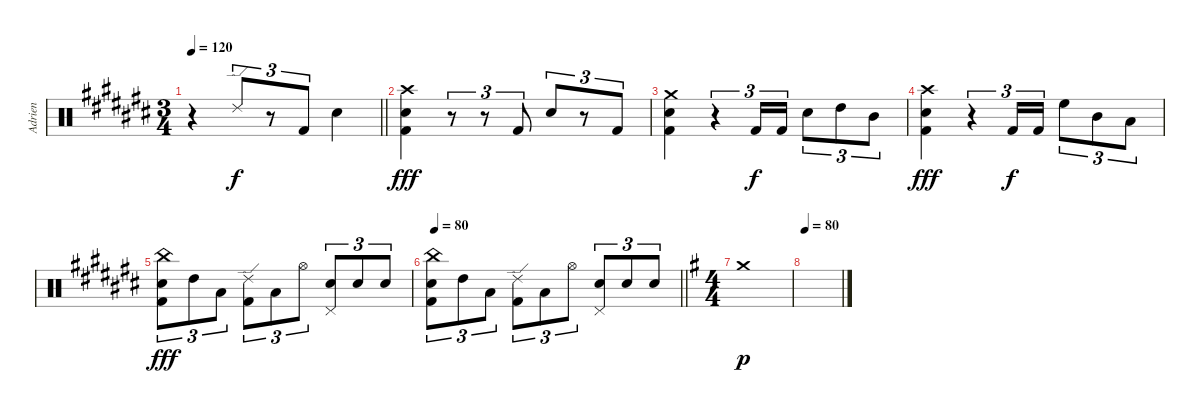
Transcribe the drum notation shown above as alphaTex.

\track ("Adrien" "Adrien") {instrument percussion}
\staff {score}
\articulation defaults
\ts (3 4)
\tempo 120
\clef neutral
\barLineRight lightlight
\ks c#
r.4{dy p} "Ride (edge) 2".8{tu (3 2) dy f} r.8{tu (3 2)} "Kick (hit) 2".8{tu (3 2)} "Snare (hit) 2".4 |
("Snare (hit) 2" "Crash high (hit)" "Kick (hit) 2").4{dy fff} r.8{tu (3 2)} r.8{tu (3 2)} "Kick (hit) 2".8{tu (3 2)} "Snare (hit) 2".8{tu (3 2)} r.8{tu (3 2)} "Kick (hit) 2".8{tu (3 2)} |
("Snare (hit) 2" "Crash medium (hit)" "Kick (hit) 2").4 r.4{tu (3 2)} "Kick (hit) 2".16{tu (3 2) dy f} "Kick (hit) 2".16{tu (3 2)} "Snare (hit) 2".8{tu (3 2)} "High Tom (hit)".8{tu (3 2)} "Mid Tom (hit)".8{tu (3 2)} |
("Snare (hit) 2" "Crash high (hit)" "Kick (hit) 2").4{dy fff} r.4{tu (3 2)} "Kick (hit) 2".16{tu (3 2) dy f} "Kick (hit) 2".16{tu (3 2)} "High Floor Tom (hit)".8{tu (3 2)} "Mid Tom (hit)".8{tu (3 2)} "Low Tom (hit)".8{tu (3 2)} |
("Snare (hit) 2" "China (hit)" "Kick (hit) 2").8{tu (3 2) dy fff} "High Tom (hit)".8{tu (3 2)} "Low Tom (hit)".8{tu (3 2)} ("Ride (edge) 2" "Kick (hit) 2").8{tu (3 2)} "Low Tom (hit)".8{tu (3 2)} "Hi-Hat (open)".8{tu (3 2)} ("Pedal Hi-Hat (hit)" "Snare (hit) 2").8{tu (3 2)} "Electric Snare (hit)".8{tu (3 2)} "Electric Snare (hit)".8{tu (3 2)} |
\tempo 80
\barLineRight lightlight
("Snare (hit) 2" "China (hit)" "Kick (hit) 2").8{tu (3 2)} "High Tom (hit)".8{tu (3 2)} "Low Tom (hit)".8{tu (3 2)} ("Ride (edge) 2" "Kick (hit) 2").8{tu (3 2)} "Low Tom (hit)".8{tu (3 2)} "Hi-Hat (open)".8{tu (3 2)} ("Pedal Hi-Hat (hit)" "Snare (hit) 2").8{tu (3 2)} "Electric Snare (hit)".8{tu (3 2)} "Electric Snare (hit)".8{tu (3 2)} |
\ts (4 4)
\ks g "Crash medium (hit)".1{dy p}
|
\tempo 80
